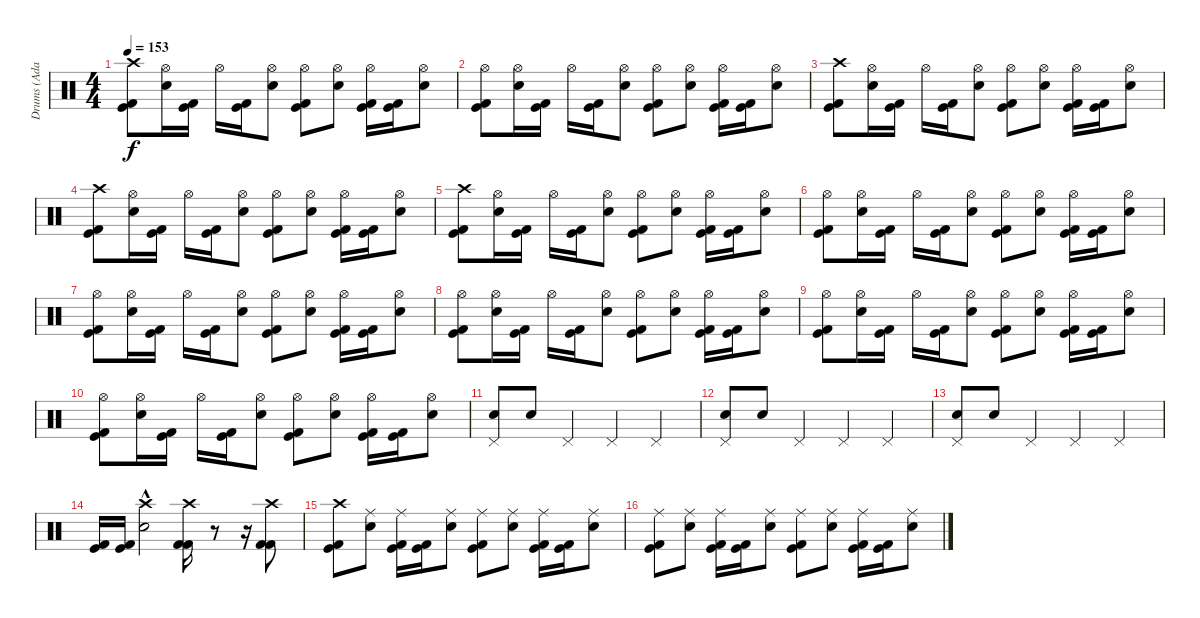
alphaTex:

\track ("Drums (Adam)" "Drums (Ada") {instrument percussion}
\staff {score}
\articulation defaults
\ts (4 4)
\tempo 153
\clef neutral
\ks c
("Crash high (hit)" "Kick (hit)" "Kick (hit) 2").8{dy f} ("Hi-Hat (open)" "Snare (hit) 2").16 ("Kick (hit)" "Kick (hit) 2").16 "Hi-Hat (open)".16 ("Kick (hit)" "Kick (hit) 2").16 ("Hi-Hat (open)" "Snare (hit) 2").8 ("Hi-Hat (open)" "Kick (hit)" "Kick (hit) 2").8 ("Hi-Hat (open)" "Snare (hit) 2").8 ("Hi-Hat (open)" "Kick (hit)" "Kick (hit) 2").16 ("Kick (hit)" "Kick (hit) 2").16 ("Hi-Hat (open)" "Snare (hit) 2").8 |
("Hi-Hat (open)" "Kick (hit)" "Kick (hit) 2").8 ("Hi-Hat (open)" "Snare (hit) 2").16 ("Kick (hit)" "Kick (hit) 2").16 "Hi-Hat (open)".16 ("Kick (hit)" "Kick (hit) 2").16 ("Hi-Hat (open)" "Snare (hit) 2").8 ("Hi-Hat (open)" "Kick (hit)" "Kick (hit) 2").8 ("Hi-Hat (open)" "Snare (hit) 2").8 ("Hi-Hat (open)" "Kick (hit)" "Kick (hit) 2").16 ("Kick (hit)" "Kick (hit) 2").16 ("Hi-Hat (open)" "Snare (hit) 2").8 |
("Crash high (hit)" "Kick (hit)" "Kick (hit) 2").8 ("Hi-Hat (open)" "Snare (hit) 2").16 ("Kick (hit)" "Kick (hit) 2").16 "Hi-Hat (open)".16 ("Kick (hit)" "Kick (hit) 2").16 ("Hi-Hat (open)" "Snare (hit) 2").8 ("Hi-Hat (open)" "Kick (hit)" "Kick (hit) 2").8 ("Hi-Hat (open)" "Snare (hit) 2").8 ("Hi-Hat (open)" "Kick (hit)" "Kick (hit) 2").16 ("Kick (hit)" "Kick (hit) 2").16 ("Hi-Hat (open)" "Snare (hit) 2").8 |
("Crash high (hit)" "Kick (hit)" "Kick (hit) 2").8 ("Hi-Hat (open)" "Snare (hit) 2").16 ("Kick (hit)" "Kick (hit) 2").16 "Hi-Hat (open)".16 ("Kick (hit)" "Kick (hit) 2").16 ("Hi-Hat (open)" "Snare (hit) 2").8 ("Hi-Hat (open)" "Kick (hit)" "Kick (hit) 2").8 ("Hi-Hat (open)" "Snare (hit) 2").8 ("Hi-Hat (open)" "Kick (hit)" "Kick (hit) 2").16 ("Kick (hit)" "Kick (hit) 2").16 ("Hi-Hat (open)" "Snare (hit) 2").8 |
("Crash high (hit)" "Kick (hit)" "Kick (hit) 2").8 ("Hi-Hat (open)" "Snare (hit) 2").16 ("Kick (hit)" "Kick (hit) 2").16 "Hi-Hat (open)".16 ("Kick (hit)" "Kick (hit) 2").16 ("Hi-Hat (open)" "Snare (hit) 2").8 ("Hi-Hat (open)" "Kick (hit)" "Kick (hit) 2").8 ("Hi-Hat (open)" "Snare (hit) 2").8 ("Hi-Hat (open)" "Kick (hit)" "Kick (hit) 2").16 ("Kick (hit)" "Kick (hit) 2").16 ("Hi-Hat (open)" "Snare (hit) 2").8 |
("Hi-Hat (open)" "Kick (hit)" "Kick (hit) 2").8 ("Hi-Hat (open)" "Snare (hit) 2").16 ("Kick (hit)" "Kick (hit) 2").16 "Hi-Hat (open)".16 ("Kick (hit)" "Kick (hit) 2").16 ("Hi-Hat (open)" "Snare (hit) 2").8 ("Hi-Hat (open)" "Kick (hit)" "Kick (hit) 2").8 ("Hi-Hat (open)" "Snare (hit) 2").8 ("Hi-Hat (open)" "Kick (hit)" "Kick (hit) 2").16 ("Kick (hit)" "Kick (hit) 2").16 ("Hi-Hat (open)" "Snare (hit) 2").8 |
("Hi-Hat (open)" "Kick (hit)" "Kick (hit) 2").8 ("Hi-Hat (open)" "Snare (hit) 2").16 ("Kick (hit)" "Kick (hit) 2").16 "Hi-Hat (open)".16 ("Kick (hit)" "Kick (hit) 2").16 ("Hi-Hat (open)" "Snare (hit) 2").8 ("Hi-Hat (open)" "Kick (hit)" "Kick (hit) 2").8 ("Hi-Hat (open)" "Snare (hit) 2").8 ("Hi-Hat (open)" "Kick (hit)" "Kick (hit) 2").16 ("Kick (hit)" "Kick (hit) 2").16 ("Hi-Hat (open)" "Snare (hit) 2").8 |
("Hi-Hat (open)" "Kick (hit)" "Kick (hit) 2").8 ("Hi-Hat (open)" "Snare (hit) 2").16 ("Kick (hit)" "Kick (hit) 2").16 "Hi-Hat (open)".16 ("Kick (hit)" "Kick (hit) 2").16 ("Hi-Hat (open)" "Snare (hit) 2").8 ("Hi-Hat (open)" "Kick (hit)" "Kick (hit) 2").8 ("Hi-Hat (open)" "Snare (hit) 2").8 ("Hi-Hat (open)" "Kick (hit)" "Kick (hit) 2").16 ("Kick (hit)" "Kick (hit) 2").16 ("Hi-Hat (open)" "Snare (hit) 2").8 |
("Hi-Hat (open)" "Kick (hit)" "Kick (hit) 2").8 ("Hi-Hat (open)" "Snare (hit) 2").16 ("Kick (hit)" "Kick (hit) 2").16 "Hi-Hat (open)".16 ("Kick (hit)" "Kick (hit) 2").16 ("Hi-Hat (open)" "Snare (hit) 2").8 ("Hi-Hat (open)" "Kick (hit)" "Kick (hit) 2").8 ("Hi-Hat (open)" "Snare (hit) 2").8 ("Hi-Hat (open)" "Kick (hit)" "Kick (hit) 2").16 ("Kick (hit)" "Kick (hit) 2").16 ("Hi-Hat (open)" "Snare (hit) 2").8 |
("Hi-Hat (open)" "Kick (hit)" "Kick (hit) 2").8 ("Hi-Hat (open)" "Snare (hit) 2").16 ("Kick (hit)" "Kick (hit) 2").16 "Hi-Hat (open)".16 ("Kick (hit)" "Kick (hit) 2").16 ("Hi-Hat (open)" "Snare (hit) 2").8 ("Hi-Hat (open)" "Kick (hit)" "Kick (hit) 2").8 ("Hi-Hat (open)" "Snare (hit) 2").8 ("Hi-Hat (open)" "Kick (hit)" "Kick (hit) 2").16 ("Kick (hit)" "Kick (hit) 2").16 ("Hi-Hat (open)" "Snare (hit) 2").8 |
("Pedal Hi-Hat (hit)" "Snare (hit) 2").8 "Snare (hit) 2".8 "Pedal Hi-Hat (hit)".4 "Pedal Hi-Hat (hit)".4 "Pedal Hi-Hat (hit)".4 |
("Pedal Hi-Hat (hit)" "Snare (hit) 2").8 "Snare (hit) 2".8 "Pedal Hi-Hat (hit)".4 "Pedal Hi-Hat (hit)".4 "Pedal Hi-Hat (hit)".4 |
("Pedal Hi-Hat (hit)" "Snare (hit) 2").8 "Snare (hit) 2".8 "Pedal Hi-Hat (hit)".4 "Pedal Hi-Hat (hit)".4 "Pedal Hi-Hat (hit)".4 |
("Kick (hit)" "Kick (hit) 2").16 ("Kick (hit)" "Kick (hit) 2").16 ("Crash high (hit)"{hac} "Snare (hit) 2").2 ("Crash high (hit)" "Kick (hit) 2" "Kick (hit) 2").16 r.8 r.16 ("Crash high (hit)" "Kick (hit) 2" "Kick (hit) 2").8 |
("Crash high (hit)" "Kick (hit)" "Kick (hit) 2").8 ("Ride (middle)" "Snare (hit) 2").8 ("Ride (middle)" "Kick (hit)" "Kick (hit) 2").16 ("Kick (hit)" "Kick (hit) 2").16 ("Ride (middle)" "Snare (hit) 2").8 ("Ride (middle)" "Kick (hit)" "Kick (hit) 2").8 ("Ride (middle)" "Snare (hit) 2").8 ("Ride (middle)" "Kick (hit)" "Kick (hit) 2").16 ("Kick (hit)" "Kick (hit) 2").16 ("Ride (middle)" "Snare (hit) 2").8 |
("Ride (middle)" "Kick (hit)" "Kick (hit) 2").8 ("Ride (middle)" "Snare (hit) 2").8 ("Ride (middle)" "Kick (hit)" "Kick (hit) 2").16 ("Kick (hit)" "Kick (hit) 2").16 ("Ride (middle)" "Snare (hit) 2").8 ("Ride (middle)" "Kick (hit)" "Kick (hit) 2").8 ("Ride (middle)" "Snare (hit) 2").8 ("Ride (middle)" "Kick (hit)" "Kick (hit) 2").16 ("Kick (hit)" "Kick (hit) 2").16 ("Ride (middle)" "Snare (hit) 2").8
